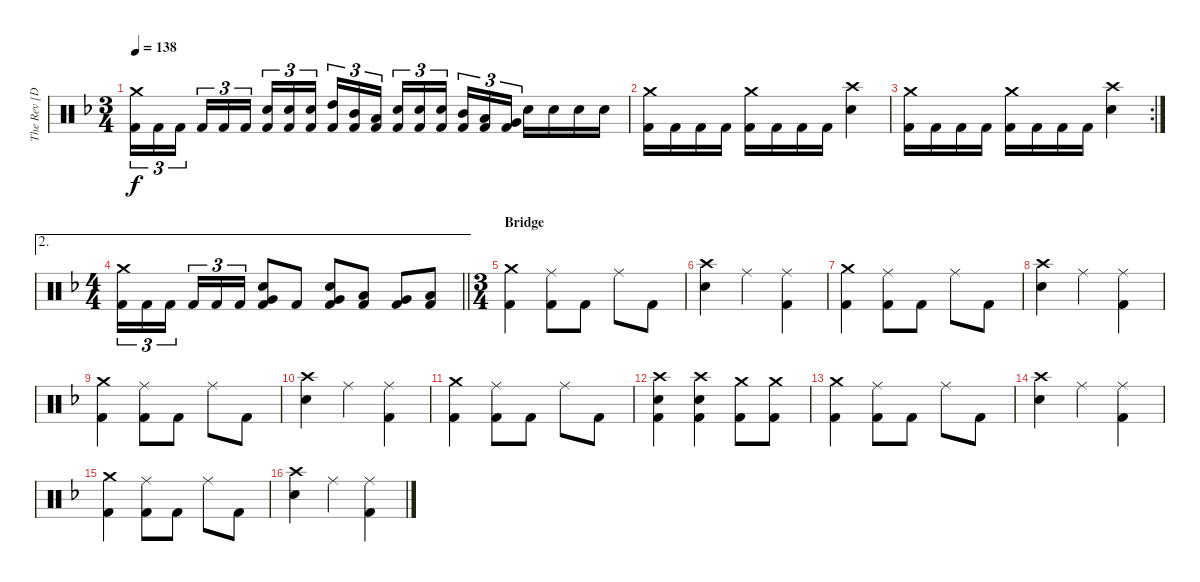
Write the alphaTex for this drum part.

\track ("The Rev [Drum]" "The Rev [D") {instrument percussion}
\staff {score}
\articulation defaults
\ts (3 4)
\tempo 138
\clef neutral
\ks f
("Crash medium (hit)" "Kick (hit) 2").16{tu (3 2) dy f} "Kick (hit) 2".16{tu (3 2)} "Kick (hit) 2".16{tu (3 2) beam splitsecondary} "Kick (hit) 2".16{tu (3 2)} "Kick (hit) 2".16{tu (3 2)} "Kick (hit) 2".16{tu (3 2)} ("Electric Snare (hit)" "Kick (hit) 2").16{tu (3 2)} ("Electric Snare (hit)" "Kick (hit) 2").16{tu (3 2)} ("Electric Snare (hit)" "Kick (hit) 2").16{tu (3 2) beam splitsecondary} ("High Tom (hit)" "Kick (hit) 2").16{tu (3 2)} ("Mid Tom (hit)" "Kick (hit) 2").16{tu (3 2)} ("Low Tom (hit)" "Kick (hit) 2").16{tu (3 2)} ("Electric Snare (hit)" "Kick (hit) 2").16{tu (3 2)} ("Electric Snare (hit)" "Kick (hit) 2").16{tu (3 2)} ("Electric Snare (hit)" "Kick (hit) 2").16{tu (3 2) beam splitsecondary} ("Mid Tom (hit)" "Kick (hit) 2").16{tu (3 2)} ("Low Tom (hit)" "Kick (hit) 2").16{tu (3 2)} ("Very Low Tom (hit)" "Kick (hit) 2").16{tu (3 2)} "Electric Snare (hit)".16 "Electric Snare (hit)".16 "Electric Snare (hit)".16 "Electric Snare (hit)".16 |
("Crash medium (hit)" "Kick (hit) 2").16 "Kick (hit) 2".16 "Kick (hit) 2".16 "Kick (hit) 2".16 ("Crash medium (hit)" "Kick (hit) 2").16 "Kick (hit) 2".16 "Kick (hit) 2".16 "Kick (hit) 2".16 ("Crash high (hit)" "Electric Snare (hit)").4 |
\rc 2
("Crash medium (hit)" "Kick (hit) 2").16 "Kick (hit) 2".16 "Kick (hit) 2".16 "Kick (hit) 2".16 ("Crash medium (hit)" "Kick (hit) 2").16 "Kick (hit) 2".16 "Kick (hit) 2".16 "Kick (hit) 2".16 ("Crash high (hit)" "Electric Snare (hit)").4 |
\ae 2
\ts (4 4)
\barLineRight lightlight
("Crash medium (hit)" "Kick (hit) 2").16{tu (3 2)} "Kick (hit) 2".16{tu (3 2)} "Kick (hit) 2".16{tu (3 2) beam splitsecondary} "Kick (hit) 2".16{tu (3 2)} "Kick (hit) 2".16{tu (3 2)} "Kick (hit) 2".16{tu (3 2)} ("Very Low Tom (hit)" "Electric Snare (hit)" "Kick (hit) 2").8 "Kick (hit) 2".8 ("Very Low Tom (hit)" "Electric Snare (hit)" "Kick (hit) 2").8 ("Low Tom (hit)" "Kick (hit) 2").8 ("Very Low Tom (hit)" "Kick (hit) 2").8 ("Low Floor Tom (hit)" "Kick (hit) 2").8 |
\ts (3 4)
\section ("" "Bridge")
("Crash medium (hit)" "Kick (hit) 2").4 ("Ride (middle)" "Kick (hit) 2").8 "Kick (hit) 2".8 "Ride (middle)".8 "Kick (hit) 2".8 |
("Crash high (hit)" "Electric Snare (hit)").4 "Ride (middle)".4 ("Ride (middle)" "Kick (hit) 2").4 |
("Crash medium (hit)" "Kick (hit) 2").4 ("Ride (middle)" "Kick (hit) 2").8 "Kick (hit) 2".8 "Ride (middle)".8 "Kick (hit) 2".8 |
("Crash high (hit)" "Electric Snare (hit)").4 "Ride (middle)".4 ("Ride (middle)" "Kick (hit) 2").4 |
("Crash medium (hit)" "Kick (hit) 2").4 ("Ride (middle)" "Kick (hit) 2").8 "Kick (hit) 2".8 "Ride (middle)".8 "Kick (hit) 2".8 |
("Crash high (hit)" "Electric Snare (hit)").4 "Ride (middle)".4 ("Ride (middle)" "Kick (hit) 2").4 |
("Crash medium (hit)" "Kick (hit) 2").4 ("Ride (middle)" "Kick (hit) 2").8 "Kick (hit) 2".8 "Ride (middle)".8 "Kick (hit) 2".8 |
("Crash high (hit)" "Electric Snare (hit)" "Kick (hit) 2").4 ("Crash high (hit)" "Electric Snare (hit)" "Kick (hit) 2").4 ("Crash medium (hit)" "Kick (hit) 2").8 ("Crash medium (hit)" "Kick (hit) 2").8 |
("Crash medium (hit)" "Kick (hit) 2").4 ("Ride (middle)" "Kick (hit) 2").8 "Kick (hit) 2".8 "Ride (middle)".8 "Kick (hit) 2".8 |
("Crash high (hit)" "Electric Snare (hit)").4 "Ride (middle)".4 ("Ride (middle)" "Kick (hit) 2").4 |
("Crash medium (hit)" "Kick (hit) 2").4 ("Ride (middle)" "Kick (hit) 2").8 "Kick (hit) 2".8 "Ride (middle)".8 "Kick (hit) 2".8 |
("Crash high (hit)" "Electric Snare (hit)").4 "Ride (middle)".4 ("Ride (middle)" "Kick (hit) 2").4
